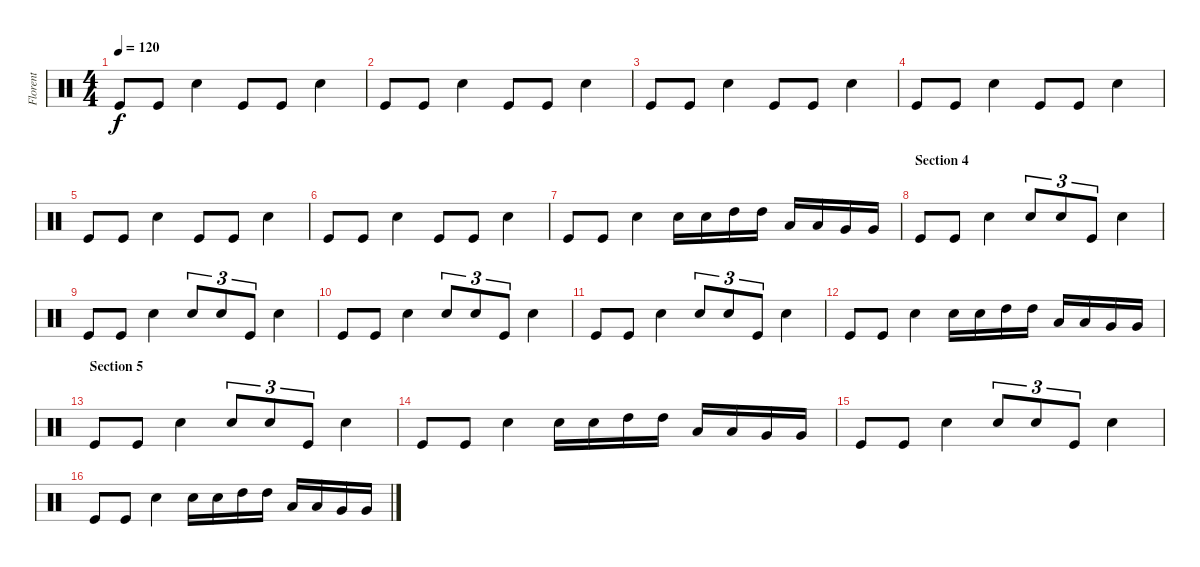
\track ("Florent" "Florent") {instrument percussion}
\staff {score}
\articulation defaults
\ts (4 4)
\tempo 120
\clef neutral
\ks c "Kick (hit)".8{dy f} "Kick (hit)".8 "Snare (hit) 2".4 "Kick (hit)".8 "Kick (hit)".8 "Snare (hit) 2".4
|
"Kick (hit)".8 "Kick (hit)".8 "Snare (hit) 2".4 "Kick (hit)".8 "Kick (hit)".8 "Snare (hit) 2".4 |
"Kick (hit)".8 "Kick (hit)".8 "Snare (hit) 2".4 "Kick (hit)".8 "Kick (hit)".8 "Snare (hit) 2".4 |
"Kick (hit)".8 "Kick (hit)".8 "Snare (hit) 2".4 "Kick (hit)".8 "Kick (hit)".8 "Snare (hit) 2".4 |
"Kick (hit)".8 "Kick (hit)".8 "Snare (hit) 2".4 "Kick (hit)".8 "Kick (hit)".8 "Snare (hit) 2".4 |
"Kick (hit)".8 "Kick (hit)".8 "Snare (hit) 2".4 "Kick (hit)".8 "Kick (hit)".8 "Snare (hit) 2".4 |
"Kick (hit)".8 "Kick (hit)".8 "Snare (hit) 2".4 "Snare (hit) 2".16 "Snare (hit) 2".16 "High Tom (hit)".16 "High Tom (hit)".16 "Low Tom (hit)".16 "Low Tom (hit)".16 "Very Low Tom (hit)".16 "Very Low Tom (hit)".16 |
\section ("" "Section 4")
"Kick (hit)".8 "Kick (hit)".8 "Snare (hit) 2".4 "Snare (hit) 2".8{tu (3 2)} "Snare (hit) 2".8{tu (3 2)} "Kick (hit)".8{tu (3 2)} "Snare (hit) 2".4 |
"Kick (hit)".8 "Kick (hit)".8 "Snare (hit) 2".4 "Snare (hit) 2".8{tu (3 2)} "Snare (hit) 2".8{tu (3 2)} "Kick (hit)".8{tu (3 2)} "Snare (hit) 2".4 |
"Kick (hit)".8 "Kick (hit)".8 "Snare (hit) 2".4 "Snare (hit) 2".8{tu (3 2)} "Snare (hit) 2".8{tu (3 2)} "Kick (hit)".8{tu (3 2)} "Snare (hit) 2".4 |
"Kick (hit)".8 "Kick (hit)".8 "Snare (hit) 2".4 "Snare (hit) 2".8{tu (3 2)} "Snare (hit) 2".8{tu (3 2)} "Kick (hit)".8{tu (3 2)} "Snare (hit) 2".4 |
"Kick (hit)".8 "Kick (hit)".8 "Snare (hit) 2".4 "Snare (hit) 2".16 "Snare (hit) 2".16 "High Tom (hit)".16 "High Tom (hit)".16 "Low Tom (hit)".16 "Low Tom (hit)".16 "Very Low Tom (hit)".16 "Very Low Tom (hit)".16 |
\section ("" "Section 5")
"Kick (hit)".8 "Kick (hit)".8 "Snare (hit) 2".4 "Snare (hit) 2".8{tu (3 2)} "Snare (hit) 2".8{tu (3 2)} "Kick (hit)".8{tu (3 2)} "Snare (hit) 2".4 |
"Kick (hit)".8 "Kick (hit)".8 "Snare (hit) 2".4 "Snare (hit) 2".16 "Snare (hit) 2".16 "High Tom (hit)".16 "High Tom (hit)".16 "Low Tom (hit)".16 "Low Tom (hit)".16 "Very Low Tom (hit)".16 "Very Low Tom (hit)".16 |
"Kick (hit)".8 "Kick (hit)".8 "Snare (hit) 2".4 "Snare (hit) 2".8{tu (3 2)} "Snare (hit) 2".8{tu (3 2)} "Kick (hit)".8{tu (3 2)} "Snare (hit) 2".4 |
"Kick (hit)".8 "Kick (hit)".8 "Snare (hit) 2".4 "Snare (hit) 2".16 "Snare (hit) 2".16 "High Tom (hit)".16 "High Tom (hit)".16 "Low Tom (hit)".16 "Low Tom (hit)".16 "Very Low Tom (hit)".16 "Very Low Tom (hit)".16
